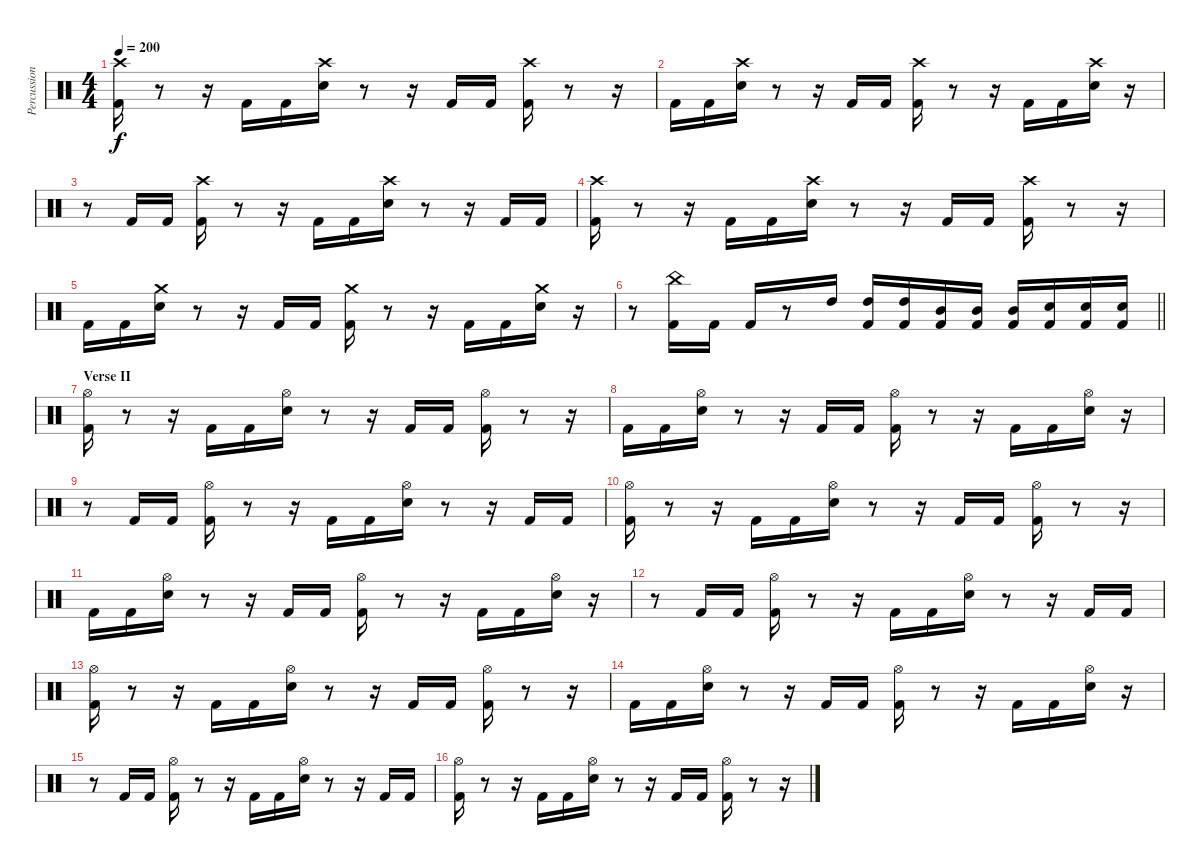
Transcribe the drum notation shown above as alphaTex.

\track ("Percussion" "Percussion") {instrument percussion}
\staff {score}
\articulation defaults
\ts (4 4)
\tempo 200
\clef neutral
\ks c
("Crash high (hit)" "Kick (hit) 2").16{dy f} r.8 r.16 "Kick (hit) 2".16 "Kick (hit) 2".16 ("Crash high (hit)" "Electric Snare (hit)").16 r.8 r.16 "Kick (hit) 2".16 "Kick (hit) 2".16 ("Crash high (hit)" "Kick (hit) 2").16 r.8 r.16 |
"Kick (hit) 2".16 "Kick (hit) 2".16 ("Crash high (hit)" "Electric Snare (hit)").16 r.8 r.16 "Kick (hit) 2".16 "Kick (hit) 2".16 ("Crash high (hit)" "Kick (hit) 2").16 r.8 r.16 "Kick (hit) 2".16 "Kick (hit) 2".16 ("Crash high (hit)" "Electric Snare (hit)").16 r.16 |
r.8 "Kick (hit) 2".16 "Kick (hit) 2".16 ("Crash high (hit)" "Kick (hit) 2").16 r.8 r.16 "Kick (hit) 2".16 "Kick (hit) 2".16 ("Crash high (hit)" "Electric Snare (hit)").16 r.8 r.16 "Kick (hit) 2".16 "Kick (hit) 2".16 |
("Crash high (hit)" "Kick (hit) 2").16 r.8 r.16 "Kick (hit) 2".16 "Kick (hit) 2".16 ("Crash high (hit)" "Electric Snare (hit)").16 r.8 r.16 "Kick (hit) 2".16 "Kick (hit) 2".16 ("Crash high (hit)" "Kick (hit) 2").16 r.8 r.16 |
"Kick (hit) 2".16 "Kick (hit) 2".16 ("Crash medium (hit)" "Electric Snare (hit)").16 r.8 r.16 "Kick (hit) 2".16 "Kick (hit) 2".16 ("Crash medium (hit)" "Kick (hit) 2").16 r.8 r.16 "Kick (hit) 2".16 "Kick (hit) 2".16 ("Crash medium (hit)" "Electric Snare (hit)").16 r.16 |
\barLineRight lightlight
r.8 ("China (hit)" "Kick (hit) 2").16 "Kick (hit) 2".16 "Kick (hit) 2".16 r.8 "High Tom (hit)".16 ("High Tom (hit)" "Kick (hit) 2").16 ("High Tom (hit)" "Kick (hit) 2").16 ("Mid Tom (hit)" "Kick (hit) 2").16 ("Mid Tom (hit)" "Kick (hit) 2").16 ("Mid Tom (hit)" "Kick (hit) 2").16 ("Electric Snare (hit)" "Kick (hit) 2").16 ("Electric Snare (hit)" "Kick (hit) 2").16 ("Electric Snare (hit)" "Kick (hit) 2").16 |
\section ("" "Verse II")
("Hi-Hat (open)" "Kick (hit) 2").16 r.8 r.16 "Kick (hit) 2".16 "Kick (hit) 2".16 ("Hi-Hat (open)" "Electric Snare (hit)").16 r.8 r.16 "Kick (hit) 2".16 "Kick (hit) 2".16 ("Hi-Hat (open)" "Kick (hit) 2").16 r.8 r.16 |
"Kick (hit) 2".16 "Kick (hit) 2".16 ("Hi-Hat (open)" "Electric Snare (hit)").16 r.8 r.16 "Kick (hit) 2".16 "Kick (hit) 2".16 ("Hi-Hat (open)" "Kick (hit) 2").16 r.8 r.16 "Kick (hit) 2".16 "Kick (hit) 2".16 ("Hi-Hat (open)" "Electric Snare (hit)").16 r.16 |
r.8 "Kick (hit) 2".16 "Kick (hit) 2".16 ("Hi-Hat (open)" "Kick (hit) 2").16 r.8 r.16 "Kick (hit) 2".16 "Kick (hit) 2".16 ("Hi-Hat (open)" "Electric Snare (hit)").16 r.8 r.16 "Kick (hit) 2".16 "Kick (hit) 2".16 |
("Hi-Hat (open)" "Kick (hit) 2").16 r.8 r.16 "Kick (hit) 2".16 "Kick (hit) 2".16 ("Hi-Hat (open)" "Electric Snare (hit)").16 r.8 r.16 "Kick (hit) 2".16 "Kick (hit) 2".16 ("Hi-Hat (open)" "Kick (hit) 2").16 r.8 r.16 |
"Kick (hit) 2".16 "Kick (hit) 2".16 ("Hi-Hat (open)" "Electric Snare (hit)").16 r.8 r.16 "Kick (hit) 2".16 "Kick (hit) 2".16 ("Hi-Hat (open)" "Kick (hit) 2").16 r.8 r.16 "Kick (hit) 2".16 "Kick (hit) 2".16 ("Hi-Hat (open)" "Electric Snare (hit)").16 r.16 |
r.8 "Kick (hit) 2".16 "Kick (hit) 2".16 ("Hi-Hat (open)" "Kick (hit) 2").16 r.8 r.16 "Kick (hit) 2".16 "Kick (hit) 2".16 ("Hi-Hat (open)" "Electric Snare (hit)").16 r.8 r.16 "Kick (hit) 2".16 "Kick (hit) 2".16 |
("Hi-Hat (open)" "Kick (hit) 2").16 r.8 r.16 "Kick (hit) 2".16 "Kick (hit) 2".16 ("Hi-Hat (open)" "Electric Snare (hit)").16 r.8 r.16 "Kick (hit) 2".16 "Kick (hit) 2".16 ("Hi-Hat (open)" "Kick (hit) 2").16 r.8 r.16 |
"Kick (hit) 2".16 "Kick (hit) 2".16 ("Hi-Hat (open)" "Electric Snare (hit)").16 r.8 r.16 "Kick (hit) 2".16 "Kick (hit) 2".16 ("Hi-Hat (open)" "Kick (hit) 2").16 r.8 r.16 "Kick (hit) 2".16 "Kick (hit) 2".16 ("Hi-Hat (open)" "Electric Snare (hit)").16 r.16 |
r.8 "Kick (hit) 2".16 "Kick (hit) 2".16 ("Hi-Hat (open)" "Kick (hit) 2").16 r.8 r.16 "Kick (hit) 2".16 "Kick (hit) 2".16 ("Hi-Hat (open)" "Electric Snare (hit)").16 r.8 r.16 "Kick (hit) 2".16 "Kick (hit) 2".16 |
("Hi-Hat (open)" "Kick (hit) 2").16 r.8 r.16 "Kick (hit) 2".16 "Kick (hit) 2".16 ("Hi-Hat (open)" "Electric Snare (hit)").16 r.8 r.16 "Kick (hit) 2".16 "Kick (hit) 2".16 ("Hi-Hat (open)" "Kick (hit) 2").16 r.8 r.16
